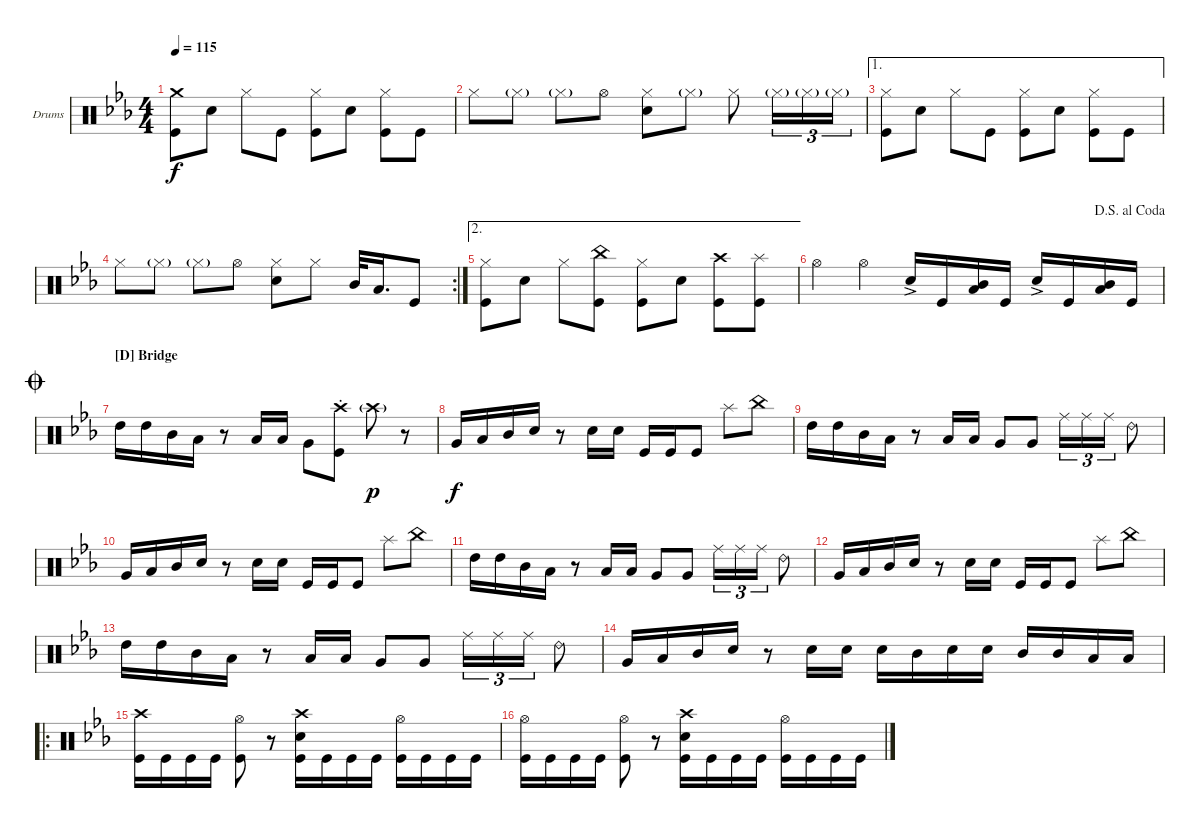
\bracketExtendMode groupsimilarinstruments
\firstSystemTrackNameOrientation horizontal
\otherSystemsTrackNameOrientation horizontal
\track ("Drumkit" "Drums") {instrument percussion}
\staff {score}
\articulation defaults
\ts (4 4)
\tempo 115
\clef neutral
\ks cminor
("Kick (hit)" "Crash medium (hit)").8{dy f} "Snare (hit) 2".8 "Hi-Hat (closed)".8 "Kick (hit)".8 ("Kick (hit)" "Hi-Hat (closed)").8 "Snare (hit) 2".8 ("Kick (hit)" "Hi-Hat (closed)").8 "Kick (hit)".8 |
"Hi-Hat (closed)".8 "Hi-Hat (closed)"{g}.8 "Hi-Hat (closed)"{g}.8 "Hi-Hat (open)".8 ("Snare (hit) 2" "Hi-Hat (closed)").8 "Hi-Hat (closed)"{g}.8 "Hi-Hat (closed)".8 "Hi-Hat (closed)"{g}.16{tu (3 2)} "Hi-Hat (closed)"{g}.16{tu (3 2)} "Hi-Hat (closed)"{g}.16{tu (3 2)} |
\ae 1
("Kick (hit)" "Hi-Hat (closed)").8 "Snare (hit) 2".8 "Hi-Hat (closed)".8 "Kick (hit)".8 ("Kick (hit)" "Hi-Hat (closed)").8 "Snare (hit) 2".8 ("Kick (hit)" "Hi-Hat (closed)").8 "Kick (hit)".8 |
\rc 2 "Hi-Hat (closed)".8 "Hi-Hat (closed)"{g}.8 "Hi-Hat (closed)"{g}.8 "Hi-Hat (open)".8
("Snare (hit) 2" "Hi-Hat (closed)").8 "Hi-Hat (closed)".8 "Mid Tom (hit)".32 "Low Tom (hit)".16{d} "Kick (hit)".8 |
\ae 2
("Kick (hit)" "Hi-Hat (closed)").8 "Snare (hit) 2".8 "Hi-Hat (closed)".8 ("Kick (hit)" "China (hit)").8 ("Kick (hit)" "Hi-Hat (closed)").8 "Snare (hit) 2".8 ("Kick (hit)" "Crash high (hit)").8 ("Kick (hit)" "Splash (hit)").8 |
\jump dalsegnoalcoda "Hi-Hat (open)".4 "Hi-Hat (open)".4 "Snare (hit) 2"{ac}.16 "Kick (hit)".16
("Mid Tom (hit)" "Low Tom (hit)").16 "Kick (hit)".16 "Snare (hit) 2"{ac}.16 "Kick (hit)".16 ("Mid Tom (hit)" "Low Tom (hit)").16 "Kick (hit)".16 |
\section ("D" "Bridge")
\jump coda "High Tom (hit)".16 "High Tom (hit)".16 "Mid Tom (hit)".16 "Low Tom (hit)".16
r.8 "Low Tom (hit)".16 "Low Tom (hit)".16 "Very Low Tom (hit)".8 ("Kick (hit)" "Crash high (hit)"{st}).8 "Crash high (hit)"{g}.8{dy p} r.8 |
"Very Low Tom (hit)".16{dy f} "Low Tom (hit)".16 "Mid Tom (hit)".16 "Snare (hit) 2".16 r.8 "Snare (hit) 2".16 "Snare (hit) 2".16 "Kick (hit)".16 "Kick (hit)".16 "Kick (hit)".8 "Splash (hit)".8 "China (hit)".8 |
"High Tom (hit)".16 "High Tom (hit)".16 "Mid Tom (hit)".16 "Low Tom (hit)".16 r.8 "Low Tom (hit)".16 "Low Tom (hit)".16 "Very Low Tom (hit)".8 "Very Low Tom (hit)".8 "Ride (middle)".16{tu (3 2)} "Ride (middle)".16{tu (3 2)} "Ride (middle)".16{tu (3 2)} "Ride (bell) 2".8 |
"Very Low Tom (hit)".16 "Low Tom (hit)".16 "Mid Tom (hit)".16 "Snare (hit) 2".16 r.8 "Snare (hit) 2".16 "Snare (hit) 2".16 "Kick (hit)".16 "Kick (hit)".16 "Kick (hit)".8 "Splash (hit)".8 "China (hit)".8 |
"High Tom (hit)".16 "High Tom (hit)".16 "Mid Tom (hit)".16 "Low Tom (hit)".16 r.8 "Low Tom (hit)".16 "Low Tom (hit)".16 "Very Low Tom (hit)".8 "Very Low Tom (hit)".8 "Ride (middle)".16{tu (3 2)} "Ride (middle)".16{tu (3 2)} "Ride (middle)".16{tu (3 2)} "Ride (bell) 2".8 |
"Very Low Tom (hit)".16 "Low Tom (hit)".16 "Mid Tom (hit)".16 "Snare (hit) 2".16 r.8 "Snare (hit) 2".16 "Snare (hit) 2".16 "Kick (hit)".16 "Kick (hit)".16 "Kick (hit)".8 "Splash (hit)".8 "China (hit)".8 |
"High Tom (hit)".16 "High Tom (hit)".16 "Mid Tom (hit)".16 "Low Tom (hit)".16 r.8 "Low Tom (hit)".16 "Low Tom (hit)".16 "Very Low Tom (hit)".8 "Very Low Tom (hit)".8 "Ride (middle)".16{tu (3 2)} "Ride (middle)".16{tu (3 2)} "Ride (middle)".16{tu (3 2)} "Ride (bell) 2".8 |
"Very Low Tom (hit)".16 "Low Tom (hit)".16 "Mid Tom (hit)".16 "Snare (hit) 2".16 r.8 "Snare (hit) 2".16 "Snare (hit) 2".16 "Snare (hit) 2".16 "Mid Tom (hit)".16 "Snare (hit) 2".16 "Snare (hit) 2".16 "Mid Tom (hit)".16 "Mid Tom (hit)".16 "Low Tom (hit)".16 "Low Tom (hit)".16 |
\ro
("Kick (hit)" "Crash high (hit)").16 "Kick (hit)".16 "Kick (hit)".16 "Kick (hit)".16 ("Kick (hit)" "Hi-Hat (open)").8 r.8 ("Kick (hit)" "Snare (hit) 2" "Crash high (hit)").16 "Kick (hit)".16 "Kick (hit)".16 "Kick (hit)".16 ("Kick (hit)" "Hi-Hat (open)").16 "Kick (hit)".16 "Kick (hit)".16 "Kick (hit)".16 |
("Kick (hit)" "Hi-Hat (open)").16 "Kick (hit)".16 "Kick (hit)".16 "Kick (hit)".16 ("Kick (hit)" "Hi-Hat (open)").8 r.8 ("Kick (hit)" "Snare (hit) 2" "Crash high (hit)").16 "Kick (hit)".16 "Kick (hit)".16 "Kick (hit)".16 ("Kick (hit)" "Hi-Hat (open)").16 "Kick (hit)".16 "Kick (hit)".16 "Kick (hit)".16
